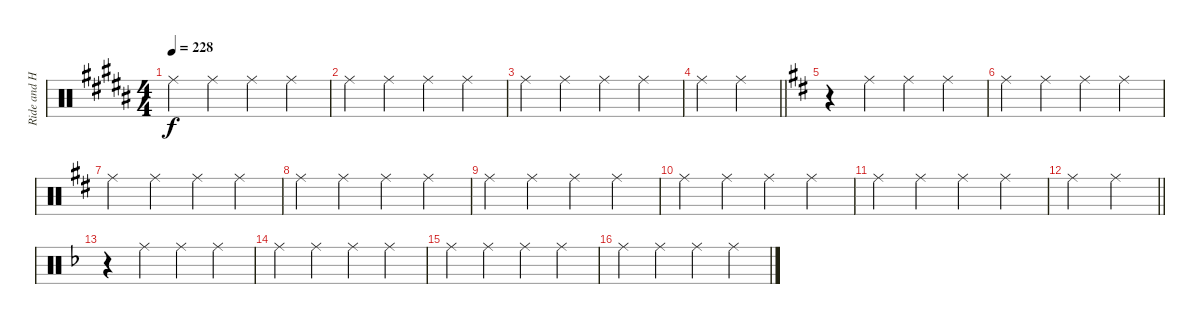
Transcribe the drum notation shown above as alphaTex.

\track ("Ride and Hi Hat" "Ride and H") {instrument percussion}
\staff {score}
\articulation defaults
\ts (4 4)
\tempo 228
\clef neutral
\ks g#minor "Ride (middle)".4{dy f} "Ride (middle)".4 "Ride (middle)".4 "Ride (middle)".4
|
"Ride (middle)".4 "Ride (middle)".4 "Ride (middle)".4 "Ride (middle)".4 |
\ks b "Ride (middle)".4 "Ride (middle)".4 "Ride (middle)".4 "Ride (middle)".4
|
\barLineRight lightlight
\ks g#minor "Ride (middle)".4 "Ride (middle)".4
|
\ks d
r.4 "Ride (middle)".4 "Ride (middle)".4 "Ride (middle)".4 |
"Ride (middle)".4 "Ride (middle)".4 "Ride (middle)".4 "Ride (middle)".4 |
"Ride (middle)".4 "Ride (middle)".4 "Ride (middle)".4 "Ride (middle)".4 |
"Ride (middle)".4 "Ride (middle)".4 "Ride (middle)".4 "Ride (middle)".4 |
"Ride (middle)".4 "Ride (middle)".4 "Ride (middle)".4 "Ride (middle)".4 |
"Ride (middle)".4 "Ride (middle)".4 "Ride (middle)".4 "Ride (middle)".4 |
"Ride (middle)".4 "Ride (middle)".4 "Ride (middle)".4 "Ride (middle)".4 |
\barLineRight lightlight "Ride (middle)".4 "Ride (middle)".4
|
\ks f
r.4 "Ride (middle)".4 "Ride (middle)".4 "Ride (middle)".4 |
"Ride (middle)".4 "Ride (middle)".4 "Ride (middle)".4 "Ride (middle)".4 |
"Ride (middle)".4 "Ride (middle)".4 "Ride (middle)".4 "Ride (middle)".4 |
"Ride (middle)".4 "Ride (middle)".4 "Ride (middle)".4 "Ride (middle)".4
